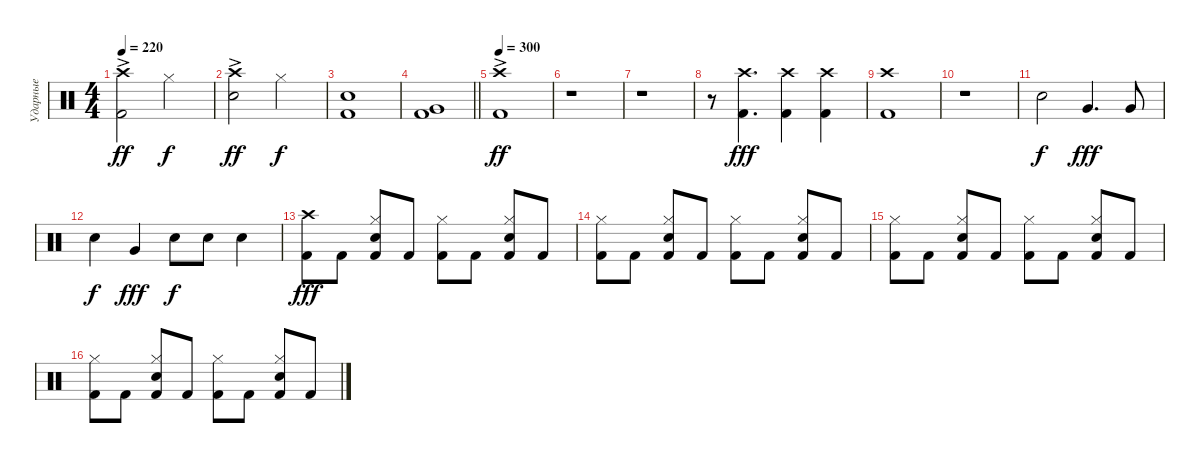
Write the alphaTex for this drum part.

\track ("Ударные" "Ударные") {instrument percussion}
\staff {score}
\articulation defaults
\ts (4 4)
\tempo 220
\clef neutral
\ks c
("Kick (hit) 2" "Crash high (hit)"{ac}).2{dy ff} "Hi-Hat (closed)".2{dy f} |
("Snare (hit) 2" "Crash high (hit)"{ac}).2{dy ff} "Hi-Hat (closed)".2{dy f} |
("Kick (hit) 2" "Snare (hit) 2").1 |
\barLineRight lightlight
("Kick (hit) 2" "Very Low Tom (hit)").1 |
\tempo 300
("Kick (hit) 2" "Crash high (hit)"{ac}).1{dy ff} |
r.1 |
r.1 |
r.8 ("Kick (hit) 2" "Crash high (hit)").4{d dy fff} ("Kick (hit) 2" "Crash high (hit)").4 ("Kick (hit) 2" "Crash high (hit)").4 |
("Kick (hit) 2" "Crash high (hit)").1 |
r.1 |
"Snare (hit) 2".2{dy f} "Very Low Tom (hit)".4{d dy fff} "Very Low Tom (hit)".8 |
"Snare (hit) 2".4{dy f} "Very Low Tom (hit)".4{dy fff} "Snare (hit) 2".8{dy f} "Snare (hit) 2".8 "Snare (hit) 2".4 |
("Kick (hit) 2" "Crash high (hit)").8{dy fff} "Kick (hit) 2".8 ("Kick (hit) 2" "Snare (hit) 2" "Hi-Hat (closed)").8 "Kick (hit) 2".8 ("Kick (hit) 2" "Hi-Hat (closed)").8 "Kick (hit) 2".8 ("Kick (hit) 2" "Snare (hit) 2" "Hi-Hat (closed)").8 "Kick (hit) 2".8 |
("Kick (hit) 2" "Hi-Hat (closed)").8 "Kick (hit) 2".8 ("Kick (hit) 2" "Snare (hit) 2" "Hi-Hat (closed)").8 "Kick (hit) 2".8 ("Kick (hit) 2" "Hi-Hat (closed)").8 "Kick (hit) 2".8 ("Kick (hit) 2" "Snare (hit) 2" "Hi-Hat (closed)").8 "Kick (hit) 2".8 |
("Kick (hit) 2" "Hi-Hat (closed)").8 "Kick (hit) 2".8 ("Kick (hit) 2" "Snare (hit) 2" "Hi-Hat (closed)").8 "Kick (hit) 2".8 ("Kick (hit) 2" "Hi-Hat (closed)").8 "Kick (hit) 2".8 ("Kick (hit) 2" "Snare (hit) 2" "Hi-Hat (closed)").8 "Kick (hit) 2".8 |
("Kick (hit) 2" "Hi-Hat (closed)").8 "Kick (hit) 2".8 ("Kick (hit) 2" "Snare (hit) 2" "Hi-Hat (closed)").8 "Kick (hit) 2".8 ("Kick (hit) 2" "Hi-Hat (closed)").8 "Kick (hit) 2".8 ("Kick (hit) 2" "Snare (hit) 2" "Hi-Hat (closed)").8 "Kick (hit) 2".8
